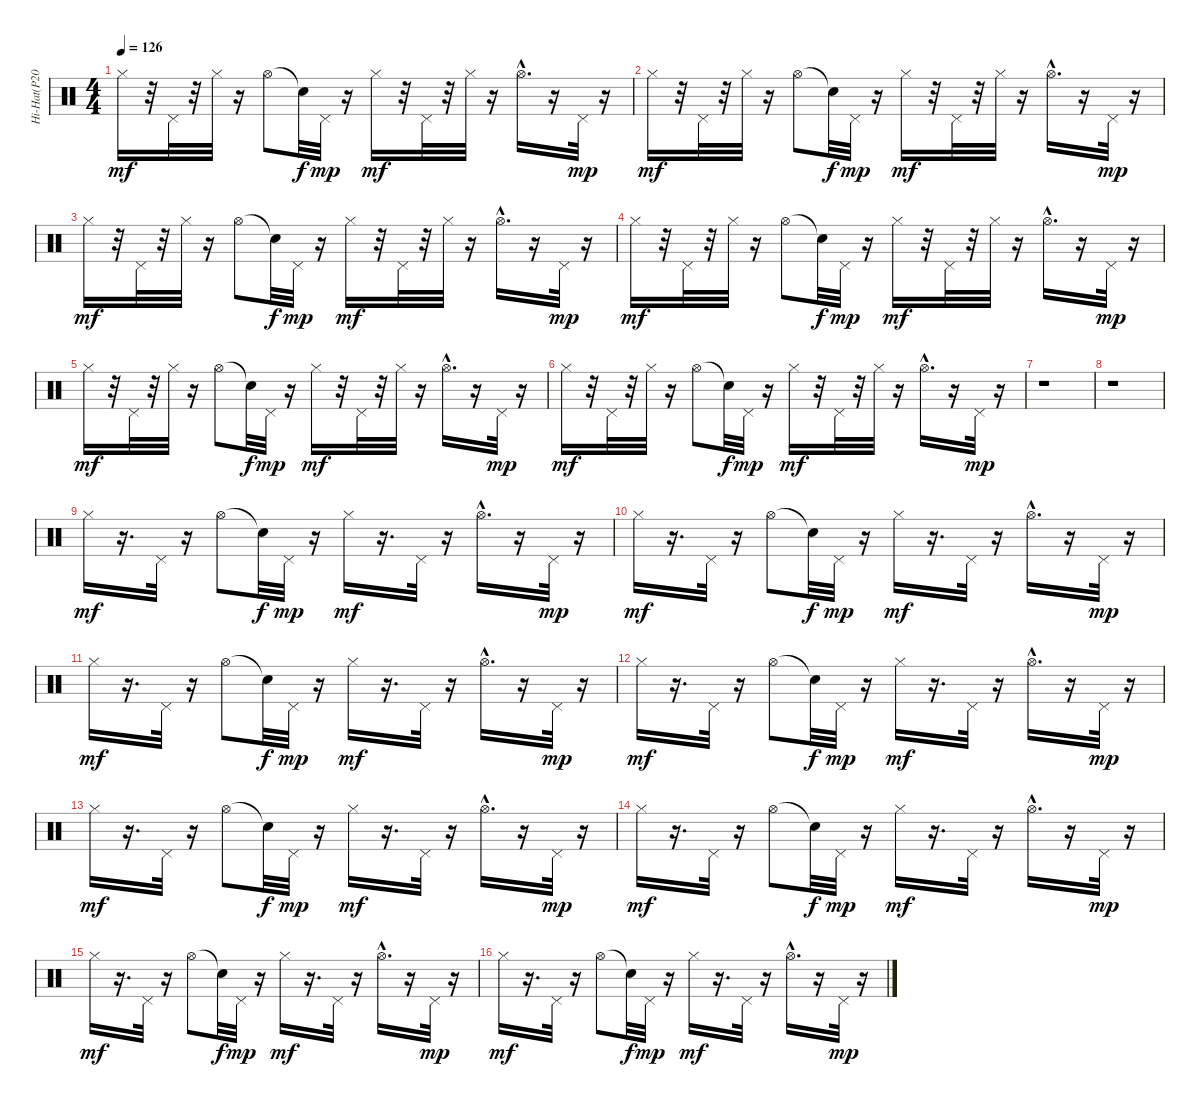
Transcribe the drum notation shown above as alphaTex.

\track ("Hi-Hat(P201)" "Hi-Hat(P20") {instrument percussion}
\staff {score}
\articulation defaults
\ts (4 4)
\tempo 126
\clef neutral
\ks c "Hi-Hat (closed)".16{dy mf}
r.32 "Pedal Hi-Hat (hit)".32 r.32 "Hi-Hat (closed)".32 r.16 "Hi-Hat (open)".8 "Snare (hit)"{t}.32{dy f} "Pedal Hi-Hat (hit)".32{dy mp} r.16 "Hi-Hat (closed)".16{dy mf} r.32 "Pedal Hi-Hat (hit)".32 r.32 "Hi-Hat (closed)".32 r.16 "Hi-Hat (open)"{hac}.16{d} r.16 "Pedal Hi-Hat (hit)".32{dy mp} r.16 |
"Hi-Hat (closed)".16{dy mf} r.32 "Pedal Hi-Hat (hit)".32 r.32 "Hi-Hat (closed)".32 r.16 "Hi-Hat (open)".8 "Snare (hit)"{t}.32{dy f} "Pedal Hi-Hat (hit)".32{dy mp} r.16 "Hi-Hat (closed)".16{dy mf} r.32 "Pedal Hi-Hat (hit)".32 r.32 "Hi-Hat (closed)".32 r.16 "Hi-Hat (open)"{hac}.16{d} r.16 "Pedal Hi-Hat (hit)".32{dy mp} r.16 |
"Hi-Hat (closed)".16{dy mf} r.32 "Pedal Hi-Hat (hit)".32 r.32 "Hi-Hat (closed)".32 r.16 "Hi-Hat (open)".8 "Snare (hit)"{t}.32{dy f} "Pedal Hi-Hat (hit)".32{dy mp} r.16 "Hi-Hat (closed)".16{dy mf} r.32 "Pedal Hi-Hat (hit)".32 r.32 "Hi-Hat (closed)".32 r.16 "Hi-Hat (open)"{hac}.16{d} r.16 "Pedal Hi-Hat (hit)".32{dy mp} r.16 |
"Hi-Hat (closed)".16{dy mf} r.32 "Pedal Hi-Hat (hit)".32 r.32 "Hi-Hat (closed)".32 r.16 "Hi-Hat (open)".8 "Snare (hit)"{t}.32{dy f} "Pedal Hi-Hat (hit)".32{dy mp} r.16 "Hi-Hat (closed)".16{dy mf} r.32 "Pedal Hi-Hat (hit)".32 r.32 "Hi-Hat (closed)".32 r.16 "Hi-Hat (open)"{hac}.16{d} r.16 "Pedal Hi-Hat (hit)".32{dy mp} r.16 |
"Hi-Hat (closed)".16{dy mf} r.32 "Pedal Hi-Hat (hit)".32 r.32 "Hi-Hat (closed)".32 r.16 "Hi-Hat (open)".8 "Snare (hit)"{t}.32{dy f} "Pedal Hi-Hat (hit)".32{dy mp} r.16 "Hi-Hat (closed)".16{dy mf} r.32 "Pedal Hi-Hat (hit)".32 r.32 "Hi-Hat (closed)".32 r.16 "Hi-Hat (open)"{hac}.16{d} r.16 "Pedal Hi-Hat (hit)".32{dy mp} r.16 |
"Hi-Hat (closed)".16{dy mf} r.32 "Pedal Hi-Hat (hit)".32 r.32 "Hi-Hat (closed)".32 r.16 "Hi-Hat (open)".8 "Snare (hit)"{t}.32{dy f} "Pedal Hi-Hat (hit)".32{dy mp} r.16 "Hi-Hat (closed)".16{dy mf} r.32 "Pedal Hi-Hat (hit)".32 r.32 "Hi-Hat (closed)".32 r.16 "Hi-Hat (open)"{hac}.16{d} r.16 "Pedal Hi-Hat (hit)".32{dy mp} r.16 |
r.1 |
r.1 |
"Hi-Hat (closed)".16{dy mf} r.16{d} "Pedal Hi-Hat (hit)".32 r.16 "Hi-Hat (open)".8 "Snare (hit)"{t}.32{dy f} "Pedal Hi-Hat (hit)".32{dy mp} r.16 "Hi-Hat (closed)".16{dy mf} r.16{d} "Pedal Hi-Hat (hit)".32 r.16 "Hi-Hat (open)"{hac}.16{d} r.16 "Pedal Hi-Hat (hit)".32{dy mp} r.16 |
"Hi-Hat (closed)".16{dy mf} r.16{d} "Pedal Hi-Hat (hit)".32 r.16 "Hi-Hat (open)".8 "Snare (hit)"{t}.32{dy f} "Pedal Hi-Hat (hit)".32{dy mp} r.16 "Hi-Hat (closed)".16{dy mf} r.16{d} "Pedal Hi-Hat (hit)".32 r.16 "Hi-Hat (open)"{hac}.16{d} r.16 "Pedal Hi-Hat (hit)".32{dy mp} r.16 |
"Hi-Hat (closed)".16{dy mf} r.16{d} "Pedal Hi-Hat (hit)".32 r.16 "Hi-Hat (open)".8 "Snare (hit)"{t}.32{dy f} "Pedal Hi-Hat (hit)".32{dy mp} r.16 "Hi-Hat (closed)".16{dy mf} r.16{d} "Pedal Hi-Hat (hit)".32 r.16 "Hi-Hat (open)"{hac}.16{d} r.16 "Pedal Hi-Hat (hit)".32{dy mp} r.16 |
"Hi-Hat (closed)".16{dy mf} r.16{d} "Pedal Hi-Hat (hit)".32 r.16 "Hi-Hat (open)".8 "Snare (hit)"{t}.32{dy f} "Pedal Hi-Hat (hit)".32{dy mp} r.16 "Hi-Hat (closed)".16{dy mf} r.16{d} "Pedal Hi-Hat (hit)".32 r.16 "Hi-Hat (open)"{hac}.16{d} r.16 "Pedal Hi-Hat (hit)".32{dy mp} r.16 |
"Hi-Hat (closed)".16{dy mf} r.16{d} "Pedal Hi-Hat (hit)".32 r.16 "Hi-Hat (open)".8 "Snare (hit)"{t}.32{dy f} "Pedal Hi-Hat (hit)".32{dy mp} r.16 "Hi-Hat (closed)".16{dy mf} r.16{d} "Pedal Hi-Hat (hit)".32 r.16 "Hi-Hat (open)"{hac}.16{d} r.16 "Pedal Hi-Hat (hit)".32{dy mp} r.16 |
"Hi-Hat (closed)".16{dy mf} r.16{d} "Pedal Hi-Hat (hit)".32 r.16 "Hi-Hat (open)".8 "Snare (hit)"{t}.32{dy f} "Pedal Hi-Hat (hit)".32{dy mp} r.16 "Hi-Hat (closed)".16{dy mf} r.16{d} "Pedal Hi-Hat (hit)".32 r.16 "Hi-Hat (open)"{hac}.16{d} r.16 "Pedal Hi-Hat (hit)".32{dy mp} r.16 |
"Hi-Hat (closed)".16{dy mf} r.16{d} "Pedal Hi-Hat (hit)".32 r.16 "Hi-Hat (open)".8 "Snare (hit)"{t}.32{dy f} "Pedal Hi-Hat (hit)".32{dy mp} r.16 "Hi-Hat (closed)".16{dy mf} r.16{d} "Pedal Hi-Hat (hit)".32 r.16 "Hi-Hat (open)"{hac}.16{d} r.16 "Pedal Hi-Hat (hit)".32{dy mp} r.16 |
"Hi-Hat (closed)".16{dy mf} r.16{d} "Pedal Hi-Hat (hit)".32 r.16 "Hi-Hat (open)".8 "Snare (hit)"{t}.32{dy f} "Pedal Hi-Hat (hit)".32{dy mp} r.16 "Hi-Hat (closed)".16{dy mf} r.16{d} "Pedal Hi-Hat (hit)".32 r.16 "Hi-Hat (open)"{hac}.16{d} r.16 "Pedal Hi-Hat (hit)".32{dy mp} r.16
